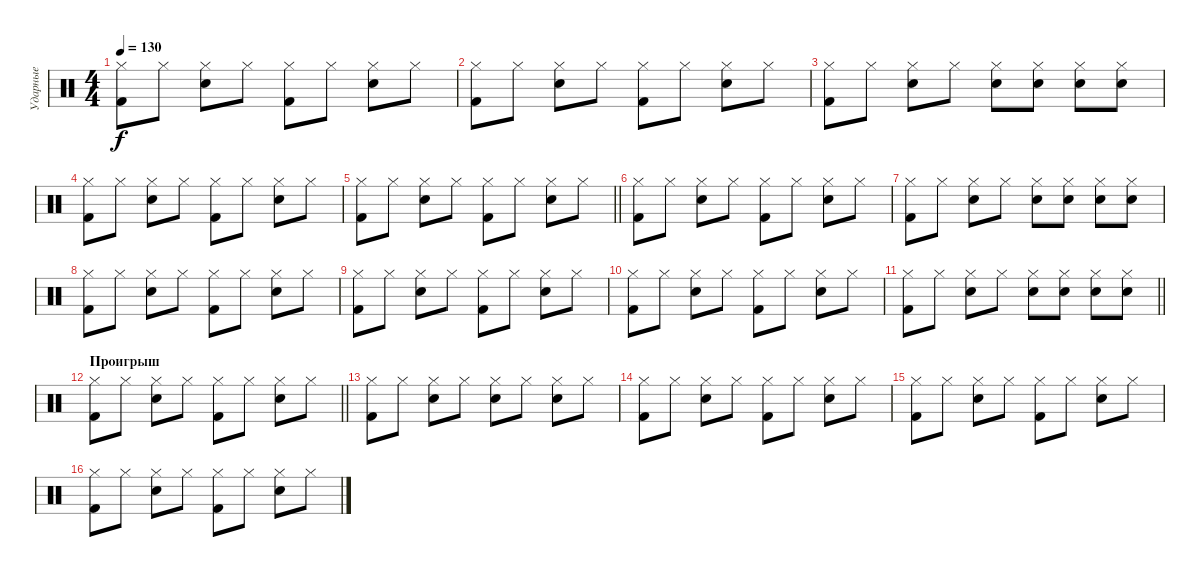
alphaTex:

\track ("Ударные" "Ударные") {instrument percussion}
\staff {score}
\articulation defaults
\ts (4 4)
\tempo 130
\clef neutral
\ks c
("Hi-Hat (closed)" "Kick (hit) 2").8{dy f} "Hi-Hat (closed)".8 ("Hi-Hat (closed)" "Snare (hit) 2").8 "Hi-Hat (closed)".8 ("Hi-Hat (closed)" "Kick (hit) 2").8 "Hi-Hat (closed)".8 ("Hi-Hat (closed)" "Snare (hit) 2").8 "Hi-Hat (closed)".8 |
("Hi-Hat (closed)" "Kick (hit) 2").8 "Hi-Hat (closed)".8 ("Hi-Hat (closed)" "Snare (hit) 2").8 "Hi-Hat (closed)".8 ("Hi-Hat (closed)" "Kick (hit) 2").8 "Hi-Hat (closed)".8 ("Hi-Hat (closed)" "Snare (hit) 2").8 "Hi-Hat (closed)".8 |
("Hi-Hat (closed)" "Kick (hit) 2").8 "Hi-Hat (closed)".8 ("Hi-Hat (closed)" "Snare (hit) 2").8 "Hi-Hat (closed)".8 ("Hi-Hat (closed)" "Snare (hit) 2").8 ("Hi-Hat (closed)" "Snare (hit) 2").8 ("Hi-Hat (closed)" "Snare (hit) 2").8 ("Hi-Hat (closed)" "Snare (hit) 2").8 |
("Hi-Hat (closed)" "Kick (hit) 2").8 "Hi-Hat (closed)".8 ("Hi-Hat (closed)" "Snare (hit) 2").8 "Hi-Hat (closed)".8 ("Hi-Hat (closed)" "Kick (hit) 2").8 "Hi-Hat (closed)".8 ("Hi-Hat (closed)" "Snare (hit) 2").8 "Hi-Hat (closed)".8 |
\barLineRight lightlight
("Hi-Hat (closed)" "Kick (hit) 2").8 "Hi-Hat (closed)".8 ("Hi-Hat (closed)" "Snare (hit) 2").8 "Hi-Hat (closed)".8 ("Hi-Hat (closed)" "Kick (hit) 2").8 "Hi-Hat (closed)".8 ("Hi-Hat (closed)" "Snare (hit) 2").8 "Hi-Hat (closed)".8 |
("Hi-Hat (closed)" "Kick (hit) 2").8 "Hi-Hat (closed)".8 ("Hi-Hat (closed)" "Snare (hit) 2").8 "Hi-Hat (closed)".8 ("Hi-Hat (closed)" "Kick (hit) 2").8 "Hi-Hat (closed)".8 ("Hi-Hat (closed)" "Snare (hit) 2").8 "Hi-Hat (closed)".8 |
("Hi-Hat (closed)" "Kick (hit) 2").8 "Hi-Hat (closed)".8 ("Hi-Hat (closed)" "Snare (hit) 2").8 "Hi-Hat (closed)".8 ("Hi-Hat (closed)" "Snare (hit) 2").8 ("Hi-Hat (closed)" "Snare (hit) 2").8 ("Hi-Hat (closed)" "Snare (hit) 2").8 ("Hi-Hat (closed)" "Snare (hit) 2").8 |
("Hi-Hat (closed)" "Kick (hit) 2").8 "Hi-Hat (closed)".8 ("Hi-Hat (closed)" "Snare (hit) 2").8 "Hi-Hat (closed)".8 ("Hi-Hat (closed)" "Kick (hit) 2").8 "Hi-Hat (closed)".8 ("Hi-Hat (closed)" "Snare (hit) 2").8 "Hi-Hat (closed)".8 |
("Hi-Hat (closed)" "Kick (hit) 2").8 "Hi-Hat (closed)".8 ("Hi-Hat (closed)" "Snare (hit) 2").8 "Hi-Hat (closed)".8 ("Hi-Hat (closed)" "Kick (hit) 2").8 "Hi-Hat (closed)".8 ("Hi-Hat (closed)" "Snare (hit) 2").8 "Hi-Hat (closed)".8 |
("Hi-Hat (closed)" "Kick (hit) 2").8 "Hi-Hat (closed)".8 ("Hi-Hat (closed)" "Snare (hit) 2").8 "Hi-Hat (closed)".8 ("Hi-Hat (closed)" "Kick (hit) 2").8 "Hi-Hat (closed)".8 ("Hi-Hat (closed)" "Snare (hit) 2").8 "Hi-Hat (closed)".8 |
\barLineRight lightlight
("Hi-Hat (closed)" "Kick (hit) 2").8 "Hi-Hat (closed)".8 ("Hi-Hat (closed)" "Snare (hit) 2").8 "Hi-Hat (closed)".8 ("Hi-Hat (closed)" "Snare (hit) 2").8 ("Hi-Hat (closed)" "Snare (hit) 2").8 ("Hi-Hat (closed)" "Snare (hit) 2").8 ("Hi-Hat (closed)" "Snare (hit) 2").8 |
\section ("" "Проигрыш")
\barLineRight lightlight
("Hi-Hat (closed)" "Kick (hit) 2").8 "Hi-Hat (closed)".8 ("Hi-Hat (closed)" "Snare (hit) 2").8 "Hi-Hat (closed)".8 ("Hi-Hat (closed)" "Kick (hit) 2").8 "Hi-Hat (closed)".8 ("Hi-Hat (closed)" "Snare (hit) 2").8 "Hi-Hat (closed)".8 |
\section ("" "")
("Hi-Hat (closed)" "Kick (hit) 2").8 "Hi-Hat (closed)".8 ("Hi-Hat (closed)" "Snare (hit) 2").8 "Hi-Hat (closed)".8 ("Hi-Hat (closed)" "Snare (hit) 2").8 "Hi-Hat (closed)".8 ("Hi-Hat (closed)" "Snare (hit) 2").8 "Hi-Hat (closed)".8 |
("Hi-Hat (closed)" "Kick (hit) 2").8 "Hi-Hat (closed)".8 ("Hi-Hat (closed)" "Snare (hit) 2").8 "Hi-Hat (closed)".8 ("Hi-Hat (closed)" "Kick (hit) 2").8 "Hi-Hat (closed)".8 ("Hi-Hat (closed)" "Snare (hit) 2").8 "Hi-Hat (closed)".8 |
("Hi-Hat (closed)" "Kick (hit) 2").8 "Hi-Hat (closed)".8 ("Hi-Hat (closed)" "Snare (hit) 2").8 "Hi-Hat (closed)".8 ("Hi-Hat (closed)" "Kick (hit) 2").8 "Hi-Hat (closed)".8 ("Hi-Hat (closed)" "Snare (hit) 2").8 "Hi-Hat (closed)".8 |
("Hi-Hat (closed)" "Kick (hit) 2").8 "Hi-Hat (closed)".8 ("Hi-Hat (closed)" "Snare (hit) 2").8 "Hi-Hat (closed)".8 ("Hi-Hat (closed)" "Kick (hit) 2").8 "Hi-Hat (closed)".8 ("Hi-Hat (closed)" "Snare (hit) 2").8 "Hi-Hat (closed)".8
